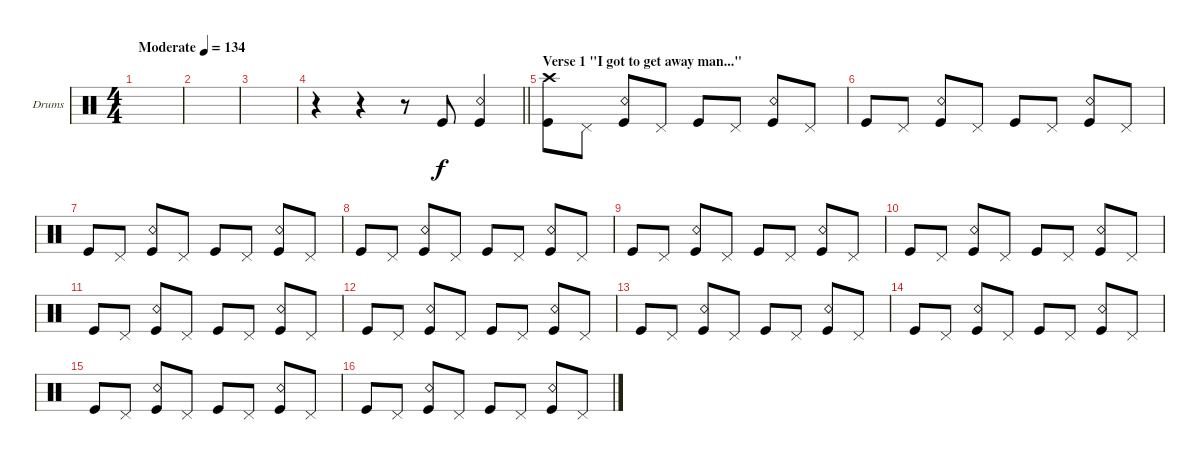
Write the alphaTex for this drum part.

\bracketExtendMode groupsimilarinstruments
\firstSystemTrackNameOrientation horizontal
\otherSystemsTrackNameOrientation horizontal
\track ("Nicky Bomba" "Drums") {instrument percussion}
\staff {score}
\articulation defaults
\ts (4 4)
\beaming (8 2 2 2 2)
\tempo (134 "Moderate")
\clef neutral
\scale
0.474178
\ks c
|
\scale
0.262911 |
\scale
0.262911 |
\scale
0.333333
\barLineRight lightlight
r.4 r.4 r.8 "Kick (hit)".8 ("Snare (rim shot)" "Kick (hit)").4 |
\section ("" "Verse 1 \"I got to get away man...\"")
\scale
0.333333 ("Kick (hit)" "Crash high (hit)").8 "Pedal Hi-Hat (hit)".8 ("Kick (hit)" "Snare (rim shot)").8 "Pedal Hi-Hat (hit)".8 "Kick (hit)".8 "Pedal Hi-Hat (hit)".8 ("Kick (hit)" "Snare (rim shot)").8 "Pedal Hi-Hat (hit)".8 |
\scale
0.333333 "Kick (hit)".8 "Pedal Hi-Hat (hit)".8 ("Kick (hit)" "Snare (rim shot)").8 "Pedal Hi-Hat (hit)".8 "Kick (hit)".8 "Pedal Hi-Hat (hit)".8 ("Kick (hit)" "Snare (rim shot)").8 "Pedal Hi-Hat (hit)".8 |
\scale
0.333333 "Kick (hit)".8 "Pedal Hi-Hat (hit)".8 ("Kick (hit)" "Snare (rim shot)").8 "Pedal Hi-Hat (hit)".8 "Kick (hit)".8 "Pedal Hi-Hat (hit)".8 ("Kick (hit)" "Snare (rim shot)").8 "Pedal Hi-Hat (hit)".8 |
\scale
0.333333 "Kick (hit)".8 "Pedal Hi-Hat (hit)".8 ("Kick (hit)" "Snare (rim shot)").8 "Pedal Hi-Hat (hit)".8 "Kick (hit)".8 "Pedal Hi-Hat (hit)".8 ("Kick (hit)" "Snare (rim shot)").8 "Pedal Hi-Hat (hit)".8 |
\scale
0.333333 "Kick (hit)".8 "Pedal Hi-Hat (hit)".8 ("Kick (hit)" "Snare (rim shot)").8 "Pedal Hi-Hat (hit)".8 "Kick (hit)".8 "Pedal Hi-Hat (hit)".8 ("Kick (hit)" "Snare (rim shot)").8 "Pedal Hi-Hat (hit)".8 |
\scale
0.333333 "Kick (hit)".8 "Pedal Hi-Hat (hit)".8 ("Kick (hit)" "Snare (rim shot)").8 "Pedal Hi-Hat (hit)".8 "Kick (hit)".8 "Pedal Hi-Hat (hit)".8 ("Kick (hit)" "Snare (rim shot)").8 "Pedal Hi-Hat (hit)".8 |
\scale
0.333333 "Kick (hit)".8 "Pedal Hi-Hat (hit)".8 ("Kick (hit)" "Snare (rim shot)").8 "Pedal Hi-Hat (hit)".8 "Kick (hit)".8 "Pedal Hi-Hat (hit)".8 ("Kick (hit)" "Snare (rim shot)").8 "Pedal Hi-Hat (hit)".8 |
\scale
0.333333 "Kick (hit)".8 "Pedal Hi-Hat (hit)".8 ("Kick (hit)" "Snare (rim shot)").8 "Pedal Hi-Hat (hit)".8 "Kick (hit)".8 "Pedal Hi-Hat (hit)".8 ("Kick (hit)" "Snare (rim shot)").8 "Pedal Hi-Hat (hit)".8 |
\scale
0.333333 "Kick (hit)".8 "Pedal Hi-Hat (hit)".8 ("Kick (hit)" "Snare (rim shot)").8 "Pedal Hi-Hat (hit)".8 "Kick (hit)".8 "Pedal Hi-Hat (hit)".8 ("Kick (hit)" "Snare (rim shot)").8 "Pedal Hi-Hat (hit)".8 |
\scale
0.333333 "Kick (hit)".8 "Pedal Hi-Hat (hit)".8 ("Kick (hit)" "Snare (rim shot)").8 "Pedal Hi-Hat (hit)".8 "Kick (hit)".8 "Pedal Hi-Hat (hit)".8 ("Kick (hit)" "Snare (rim shot)").8 "Pedal Hi-Hat (hit)".8 |
\scale
0.333333 "Kick (hit)".8 "Pedal Hi-Hat (hit)".8 ("Kick (hit)" "Snare (rim shot)").8 "Pedal Hi-Hat (hit)".8 "Kick (hit)".8 "Pedal Hi-Hat (hit)".8 ("Kick (hit)" "Snare (rim shot)").8 "Pedal Hi-Hat (hit)".8 |
\scale
0.333333 "Kick (hit)".8 "Pedal Hi-Hat (hit)".8 ("Kick (hit)" "Snare (rim shot)").8 "Pedal Hi-Hat (hit)".8 "Kick (hit)".8 "Pedal Hi-Hat (hit)".8 ("Kick (hit)" "Snare (rim shot)").8 "Pedal Hi-Hat (hit)".8
